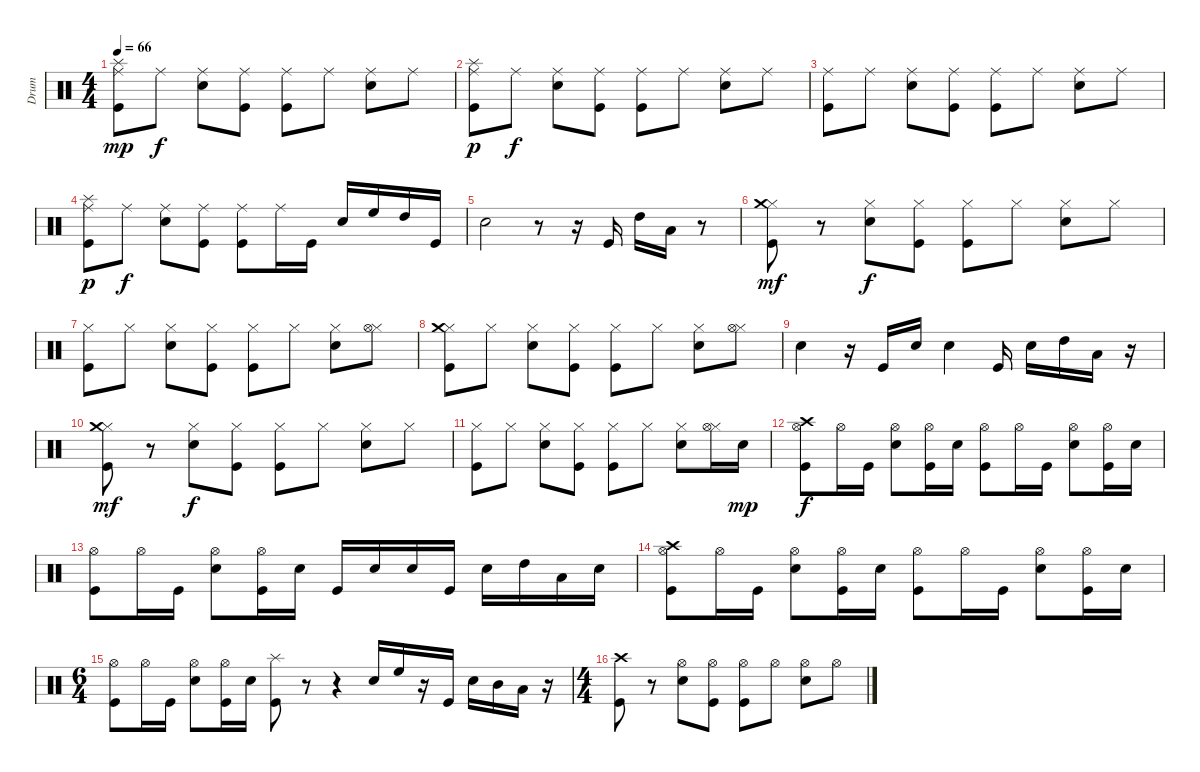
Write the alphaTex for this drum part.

\track ("Drum" "Drum") {instrument percussion}
\staff {score}
\articulation defaults
\ts (4 4)
\tempo 66
\clef neutral
\ks c
("Ride (middle)" "Splash (hit)" "Kick (hit)").8{dy mp} "Ride (middle)".8{dy f} ("Ride (middle)" "Snare (hit) 2").8 ("Ride (middle)" "Kick (hit)").8 ("Ride (middle)" "Kick (hit)").8 "Ride (middle)".8 ("Ride (middle)" "Snare (hit) 2").8 "Ride (middle)".8 |
("Ride (middle)" "Splash (hit)" "Kick (hit)").8{dy p} "Ride (middle)".8{dy f} ("Ride (middle)" "Snare (hit) 2").8 ("Ride (middle)" "Kick (hit)").8 ("Ride (middle)" "Kick (hit)").8 "Ride (middle)".8 ("Ride (middle)" "Snare (hit) 2").8 "Ride (middle)".8 |
("Ride (middle)" "Kick (hit)").8 "Ride (middle)".8 ("Ride (middle)" "Snare (hit) 2").8 ("Ride (middle)" "Kick (hit)").8 ("Ride (middle)" "Kick (hit)").8 "Ride (middle)".8 ("Ride (middle)" "Snare (hit) 2").8 "Ride (middle)".8 |
("Ride (middle)" "Splash (hit)" "Kick (hit)").8{dy p} "Ride (middle)".8{dy f} ("Ride (middle)" "Snare (hit) 2").8 ("Ride (middle)" "Kick (hit)").8 ("Ride (middle)" "Kick (hit)").8 "Ride (middle)".16 "Kick (hit)".16 "Snare (hit) 2".16 "High Floor Tom (hit)".16 "High Tom (hit)".16 "Kick (hit)".16 |
"Snare (hit) 2".2 r.8 r.16 "Kick (hit)".16 "High Tom (hit)".16 "Low Tom (hit)".16 r.8 |
("Hi-Hat (closed)" "Crash medium (hit)" "Kick (hit)").8{dy mf} r.8 ("Hi-Hat (closed)" "Snare (hit) 2").8{dy f} ("Hi-Hat (closed)" "Kick (hit)").8 ("Hi-Hat (closed)" "Kick (hit)").8 "Hi-Hat (closed)".8 ("Hi-Hat (closed)" "Snare (hit) 2").8 "Hi-Hat (closed)".8 |
("Hi-Hat (closed)" "Kick (hit)").8 "Hi-Hat (closed)".8 ("Hi-Hat (closed)" "Snare (hit) 2").8 ("Hi-Hat (closed)" "Kick (hit)").8 ("Hi-Hat (closed)" "Kick (hit)").8 "Hi-Hat (closed)".8 ("Hi-Hat (closed)" "Snare (hit) 2").8 ("Hi-Hat (closed)" "Hi-Hat (open)").8 |
("Hi-Hat (closed)" "Crash medium (hit)" "Kick (hit)").8 "Hi-Hat (closed)".8 ("Hi-Hat (closed)" "Snare (hit) 2").8 ("Hi-Hat (closed)" "Kick (hit)").8 ("Hi-Hat (closed)" "Kick (hit)").8 "Hi-Hat (closed)".8 ("Hi-Hat (closed)" "Snare (hit) 2").8 ("Hi-Hat (closed)" "Hi-Hat (open)").8 |
"Snare (hit) 2".4 r.16 "Kick (hit)".16 "Snare (hit) 2".16 "Snare (hit) 2".4 "Kick (hit)".16 "Snare (hit) 2".16 "High Tom (hit)".16 "Low Tom (hit)".16 r.16 |
("Hi-Hat (closed)" "Crash medium (hit)" "Kick (hit)").8{dy mf} r.8 ("Hi-Hat (closed)" "Snare (hit) 2").8{dy f} ("Hi-Hat (closed)" "Kick (hit)").8 ("Hi-Hat (closed)" "Kick (hit)").8 "Hi-Hat (closed)".8 ("Hi-Hat (closed)" "Snare (hit) 2").8 "Hi-Hat (closed)".8 |
("Hi-Hat (closed)" "Kick (hit)").8 "Hi-Hat (closed)".8 ("Hi-Hat (closed)" "Snare (hit) 2").8 ("Hi-Hat (closed)" "Kick (hit)").8 ("Hi-Hat (closed)" "Kick (hit)").8 "Hi-Hat (closed)".8 ("Hi-Hat (closed)" "Snare (hit) 2").8 ("Hi-Hat (closed)" "Hi-Hat (open)").16 "Snare (hit) 2".16{dy mp} |
("Hi-Hat (open)" "Crash high (hit)" "Kick (hit)").8{dy f} "Hi-Hat (open)".16 "Kick (hit)".16 ("Hi-Hat (open)" "Snare (hit) 2").8 ("Hi-Hat (open)" "Kick (hit)").16 "Snare (hit) 2".16 ("Hi-Hat (open)" "Kick (hit)").8 "Hi-Hat (open)".16 "Kick (hit)".16 ("Hi-Hat (open)" "Snare (hit) 2").8 ("Hi-Hat (open)" "Kick (hit)").16 "Snare (hit) 2".16 |
("Hi-Hat (open)" "Kick (hit)").8 "Hi-Hat (open)".16 "Kick (hit)".16 ("Hi-Hat (open)" "Snare (hit) 2").8 ("Hi-Hat (open)" "Kick (hit)").16 "Snare (hit) 2".16 "Kick (hit)".16 "Snare (hit) 2".16 "Snare (hit) 2".16 "Kick (hit)".16 "Snare (hit) 2".16 "High Tom (hit)".16 "Low Tom (hit)".16 "Snare (hit) 2".16 |
("Hi-Hat (open)" "Crash high (hit)" "Kick (hit)").8 "Hi-Hat (open)".16 "Kick (hit)".16 ("Hi-Hat (open)" "Snare (hit) 2").8 ("Hi-Hat (open)" "Kick (hit)").16 "Snare (hit) 2".16 ("Hi-Hat (open)" "Kick (hit)").8 "Hi-Hat (open)".16 "Kick (hit)".16 ("Hi-Hat (open)" "Snare (hit) 2").8 ("Hi-Hat (open)" "Kick (hit)").16 "Snare (hit) 2".16 |
\ts (6 4)
("Hi-Hat (open)" "Kick (hit)").8 "Hi-Hat (open)".16 "Kick (hit)".16 ("Hi-Hat (open)" "Snare (hit) 2").8 ("Hi-Hat (open)" "Kick (hit)").16 "Snare (hit) 2".16 ("Splash (hit)" "Kick (hit)").8 r.8 r.4 "Snare (hit) 2".16 "High Floor Tom (hit)".16 r.16 "Kick (hit)".16 "Snare (hit) 2".16 "Mid Tom (hit)".16 "Low Tom (hit)".16 r.16 |
\ts (4 4)
("Crash high (hit)" "Kick (hit)").8 r.8 ("Hi-Hat (open)" "Snare (hit) 2").8 ("Hi-Hat (open)" "Kick (hit)").8 ("Hi-Hat (open)" "Kick (hit)").8 "Hi-Hat (open)".8 ("Hi-Hat (open)" "Snare (hit) 2").8 "Hi-Hat (open)".8
